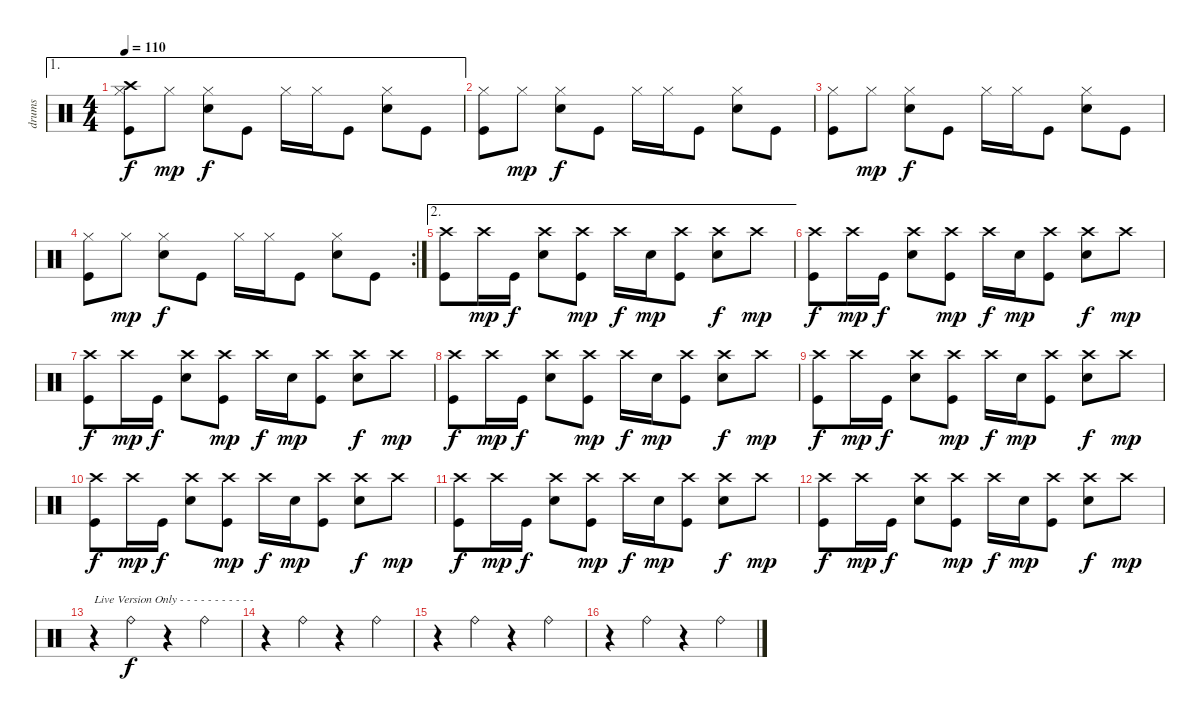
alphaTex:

\track ("drums" "drums") {instrument percussion}
\staff {score}
\articulation defaults
\ae 1
\ts (4 4)
\tempo 110
\clef neutral
\ks c
("Hi-Hat (closed)" "Crash high (hit)" "Kick (hit)").8{dy f} "Hi-Hat (closed)".8{dy mp} ("Hi-Hat (closed)" "Electric Snare (hit)").8{dy f} "Kick (hit)".8 "Hi-Hat (closed)".16 "Hi-Hat (closed)".16 "Kick (hit)".8 ("Hi-Hat (closed)" "Electric Snare (hit)").8 "Kick (hit)".8 |
("Hi-Hat (closed)" "Kick (hit)").8 "Hi-Hat (closed)".8{dy mp} ("Hi-Hat (closed)" "Electric Snare (hit)").8{dy f} "Kick (hit)".8 "Hi-Hat (closed)".16 "Hi-Hat (closed)".16 "Kick (hit)".8 ("Hi-Hat (closed)" "Electric Snare (hit)").8 "Kick (hit)".8 |
("Hi-Hat (closed)" "Kick (hit)").8 "Hi-Hat (closed)".8{dy mp} ("Hi-Hat (closed)" "Electric Snare (hit)").8{dy f} "Kick (hit)".8 "Hi-Hat (closed)".16 "Hi-Hat (closed)".16 "Kick (hit)".8 ("Hi-Hat (closed)" "Electric Snare (hit)").8 "Kick (hit)".8 |
\rc 2
("Hi-Hat (closed)" "Kick (hit)").8 "Hi-Hat (closed)".8{dy mp} ("Hi-Hat (closed)" "Electric Snare (hit)").8{dy f} "Kick (hit)".8 "Hi-Hat (closed)".16 "Hi-Hat (closed)".16 "Kick (hit)".8 ("Hi-Hat (closed)" "Electric Snare (hit)").8 "Kick (hit)".8 |
\ae 2
("Crash high (hit)" "Kick (hit)").8 "Crash high (hit)".16{dy mp} "Kick (hit)".16{dy f} ("Crash high (hit)" "Electric Snare (hit)").8 ("Crash high (hit)" "Kick (hit)").8{dy mp} "Crash high (hit)".16{dy f} "Electric Snare (hit)".16{dy mp} ("Crash high (hit)" "Kick (hit)").8 ("Crash high (hit)" "Electric Snare (hit)").8{dy f} "Crash high (hit)".8{dy mp} |
("Crash high (hit)" "Kick (hit)").8{dy f} "Crash high (hit)".16{dy mp} "Kick (hit)".16{dy f} ("Crash high (hit)" "Electric Snare (hit)").8 ("Crash high (hit)" "Kick (hit)").8{dy mp} "Crash high (hit)".16{dy f} "Electric Snare (hit)".16{dy mp} ("Crash high (hit)" "Kick (hit)").8 ("Crash high (hit)" "Electric Snare (hit)").8{dy f} "Crash high (hit)".8{dy mp} |
("Crash high (hit)" "Kick (hit)").8{dy f} "Crash high (hit)".16{dy mp} "Kick (hit)".16{dy f} ("Crash high (hit)" "Electric Snare (hit)").8 ("Crash high (hit)" "Kick (hit)").8{dy mp} "Crash high (hit)".16{dy f} "Electric Snare (hit)".16{dy mp} ("Crash high (hit)" "Kick (hit)").8 ("Crash high (hit)" "Electric Snare (hit)").8{dy f} "Crash high (hit)".8{dy mp} |
("Crash high (hit)" "Kick (hit)").8{dy f} "Crash high (hit)".16{dy mp} "Kick (hit)".16{dy f} ("Crash high (hit)" "Electric Snare (hit)").8 ("Crash high (hit)" "Kick (hit)").8{dy mp} "Crash high (hit)".16{dy f} "Electric Snare (hit)".16{dy mp} ("Crash high (hit)" "Kick (hit)").8 ("Crash high (hit)" "Electric Snare (hit)").8{dy f} "Crash high (hit)".8{dy mp} |
("Crash high (hit)" "Kick (hit)").8{dy f} "Crash high (hit)".16{dy mp} "Kick (hit)".16{dy f} ("Crash high (hit)" "Electric Snare (hit)").8 ("Crash high (hit)" "Kick (hit)").8{dy mp} "Crash high (hit)".16{dy f} "Electric Snare (hit)".16{dy mp} ("Crash high (hit)" "Kick (hit)").8 ("Crash high (hit)" "Electric Snare (hit)").8{dy f} "Crash high (hit)".8{dy mp} |
("Crash high (hit)" "Kick (hit)").8{dy f} "Crash high (hit)".16{dy mp} "Kick (hit)".16{dy f} ("Crash high (hit)" "Electric Snare (hit)").8 ("Crash high (hit)" "Kick (hit)").8{dy mp} "Crash high (hit)".16{dy f} "Electric Snare (hit)".16{dy mp} ("Crash high (hit)" "Kick (hit)").8 ("Crash high (hit)" "Electric Snare (hit)").8{dy f} "Crash high (hit)".8{dy mp} |
("Crash high (hit)" "Kick (hit)").8{dy f} "Crash high (hit)".16{dy mp} "Kick (hit)".16{dy f} ("Crash high (hit)" "Electric Snare (hit)").8 ("Crash high (hit)" "Kick (hit)").8{dy mp} "Crash high (hit)".16{dy f} "Electric Snare (hit)".16{dy mp} ("Crash high (hit)" "Kick (hit)").8 ("Crash high (hit)" "Electric Snare (hit)").8{dy f} "Crash high (hit)".8{dy mp} |
("Crash high (hit)" "Kick (hit)").8{dy f} "Crash high (hit)".16{dy mp} "Kick (hit)".16{dy f} ("Crash high (hit)" "Electric Snare (hit)").8 ("Crash high (hit)" "Kick (hit)").8{dy mp} "Crash high (hit)".16{dy f} "Electric Snare (hit)".16{dy mp} ("Crash high (hit)" "Kick (hit)").8 ("Crash high (hit)" "Electric Snare (hit)").8{dy f} "Crash high (hit)".8{dy mp} |
r.4{txt "Live Version Only - - - - - - - - - - -"} "Ride (bell)".4{dy f} r.4 "Ride (bell)".4 |
r.4 "Ride (bell)".4 r.4 "Ride (bell)".4 |
r.4 "Ride (bell)".4 r.4 "Ride (bell)".4 |
r.4 "Ride (bell)".4 r.4 "Ride (bell)".4
